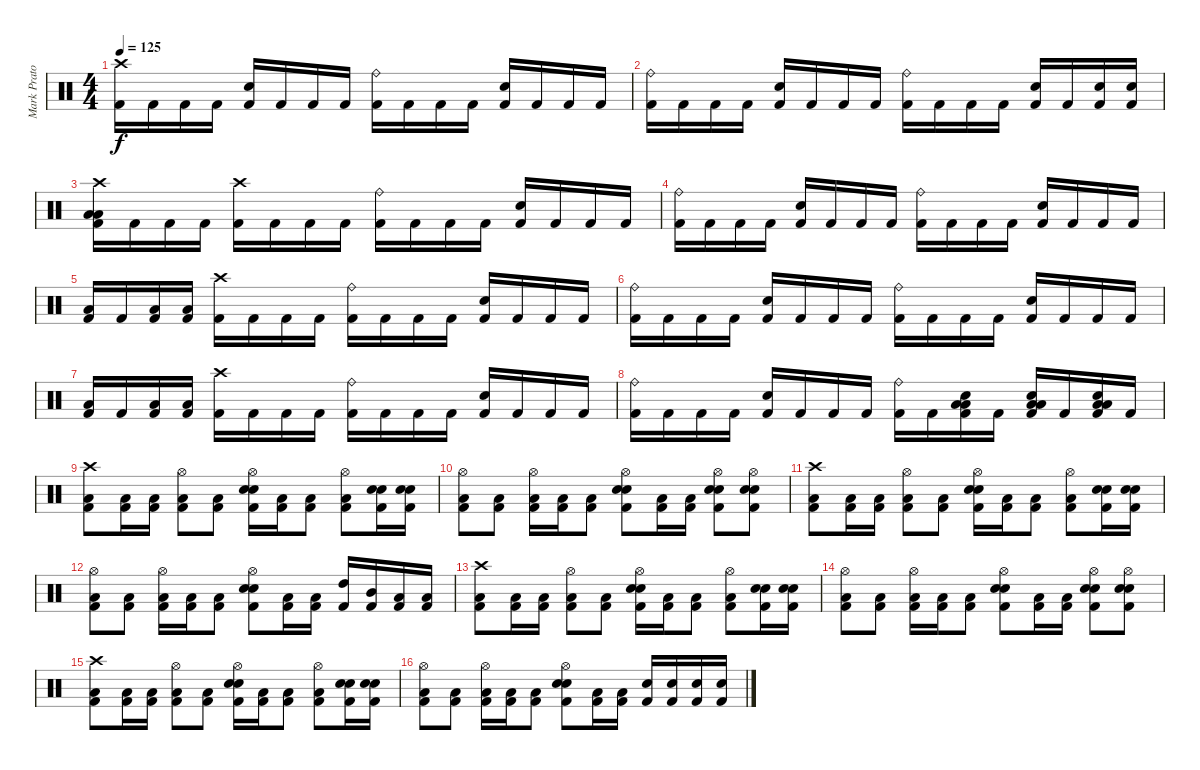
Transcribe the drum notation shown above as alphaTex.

\track ("Mark Prator" "Mark Prato") {instrument percussion}
\staff {score}
\articulation defaults
\ts (4 4)
\tempo 125
\clef neutral
\ks c
("Crash high (hit)" "Kick (hit) 2").16{dy f} "Kick (hit) 2".16 "Kick (hit) 2".16 "Kick (hit) 2".16 ("Electric Snare (hit)" "Kick (hit) 2").16 "Kick (hit) 2".16 "Kick (hit) 2".16 "Kick (hit) 2".16 ("Ride (bell)" "Kick (hit) 2").16 "Kick (hit) 2".16 "Kick (hit) 2".16 "Kick (hit) 2".16 ("Electric Snare (hit)" "Kick (hit) 2").16 "Kick (hit) 2".16 "Kick (hit) 2".16 "Kick (hit) 2".16 |
("Ride (bell)" "Kick (hit) 2").16 "Kick (hit) 2".16 "Kick (hit) 2".16 "Kick (hit) 2".16 ("Electric Snare (hit)" "Kick (hit) 2").16 "Kick (hit) 2".16 "Kick (hit) 2".16 "Kick (hit) 2".16 ("Ride (bell)" "Kick (hit) 2").16 "Kick (hit) 2".16 "Kick (hit) 2".16 "Kick (hit) 2".16 ("Electric Snare (hit)" "Kick (hit) 2").16 "Kick (hit) 2".16 ("Electric Snare (hit)" "Kick (hit) 2").16 ("Electric Snare (hit)" "Kick (hit) 2").16 |
("Crash high (hit)" "Low Floor Tom (hit)" "Low Floor Tom (hit)" "Kick (hit) 2").16 "Kick (hit) 2".16 "Kick (hit) 2".16 "Kick (hit) 2".16 ("Crash high (hit)" "Kick (hit) 2").16 "Kick (hit) 2".16 "Kick (hit) 2".16 "Kick (hit) 2".16 ("Ride (bell)" "Kick (hit) 2").16 "Kick (hit) 2".16 "Kick (hit) 2".16 "Kick (hit) 2".16 ("Electric Snare (hit)" "Kick (hit) 2").16 "Kick (hit) 2".16 "Kick (hit) 2".16 "Kick (hit) 2".16 |
("Ride (bell)" "Kick (hit) 2").16 "Kick (hit) 2".16 "Kick (hit) 2".16 "Kick (hit) 2".16 ("Electric Snare (hit)" "Kick (hit) 2").16 "Kick (hit) 2".16 "Kick (hit) 2".16 "Kick (hit) 2".16 ("Ride (bell)" "Kick (hit) 2").16 "Kick (hit) 2".16 "Kick (hit) 2".16 "Kick (hit) 2".16 ("Electric Snare (hit)" "Kick (hit) 2").16 "Kick (hit) 2".16 "Kick (hit) 2".16 "Kick (hit) 2".16 |
("Low Tom (hit)" "Kick (hit) 2").16 "Kick (hit) 2".16 ("Low Tom (hit)" "Kick (hit) 2").16 ("Low Tom (hit)" "Kick (hit) 2").16 ("Crash high (hit)" "Kick (hit) 2").16 "Kick (hit) 2".16 "Kick (hit) 2".16 "Kick (hit) 2".16 ("Ride (bell)" "Kick (hit) 2").16 "Kick (hit) 2".16 "Kick (hit) 2".16 "Kick (hit) 2".16 ("Electric Snare (hit)" "Kick (hit) 2").16 "Kick (hit) 2".16 "Kick (hit) 2".16 "Kick (hit) 2".16 |
("Ride (bell)" "Kick (hit) 2").16 "Kick (hit) 2".16 "Kick (hit) 2".16 "Kick (hit) 2".16 ("Electric Snare (hit)" "Kick (hit) 2").16 "Kick (hit) 2".16 "Kick (hit) 2".16 "Kick (hit) 2".16 ("Ride (bell)" "Kick (hit) 2").16 "Kick (hit) 2".16 "Kick (hit) 2".16 "Kick (hit) 2".16 ("Electric Snare (hit)" "Kick (hit) 2").16 "Kick (hit) 2".16 "Kick (hit) 2".16 "Kick (hit) 2".16 |
("Low Tom (hit)" "Kick (hit) 2").16 "Kick (hit) 2".16 ("Low Tom (hit)" "Kick (hit) 2").16 ("Low Tom (hit)" "Kick (hit) 2").16 ("Crash high (hit)" "Kick (hit) 2").16 "Kick (hit) 2".16 "Kick (hit) 2".16 "Kick (hit) 2".16 ("Ride (bell)" "Kick (hit) 2").16 "Kick (hit) 2".16 "Kick (hit) 2".16 "Kick (hit) 2".16 ("Electric Snare (hit)" "Kick (hit) 2").16 "Kick (hit) 2".16 "Kick (hit) 2".16 "Kick (hit) 2".16 |
("Ride (bell)" "Kick (hit) 2").16 "Kick (hit) 2".16 "Kick (hit) 2".16 "Kick (hit) 2".16 ("Electric Snare (hit)" "Kick (hit) 2").16 "Kick (hit) 2".16 "Kick (hit) 2".16 "Kick (hit) 2".16 ("Ride (bell)" "Kick (hit) 2").16 "Kick (hit) 2".16 ("Low Floor Tom (hit)" "Low Floor Tom (hit)" "Electric Snare (hit)" "Kick (hit) 2").16 "Kick (hit) 2".16 ("Low Floor Tom (hit)" "Low Floor Tom (hit)" "Electric Snare (hit)" "Kick (hit) 2").16 "Kick (hit) 2".16 ("Low Floor Tom (hit)" "Low Floor Tom (hit)" "Electric Snare (hit)" "Kick (hit) 2").16 "Kick (hit) 2".16 |
("Crash high (hit)" "Low Tom (hit)" "Kick (hit) 2").8 ("Low Tom (hit)" "Kick (hit) 2").16 ("Low Tom (hit)" "Kick (hit) 2").16 ("Hi-Hat (open)" "Low Tom (hit)" "Kick (hit) 2").8 ("Low Tom (hit)" "Kick (hit) 2").8 ("Hi-Hat (open)" "Electric Snare (hit)" "Electric Snare (hit)" "Kick (hit) 2").16 ("Low Tom (hit)" "Kick (hit) 2").16 ("Low Tom (hit)" "Kick (hit) 2").8 ("Hi-Hat (open)" "Low Tom (hit)" "Kick (hit) 2").8 ("Electric Snare (hit)" "Electric Snare (hit)" "Kick (hit) 2").16 ("Electric Snare (hit)" "Electric Snare (hit)" "Kick (hit) 2").16 |
("Hi-Hat (open)" "Low Tom (hit)" "Kick (hit) 2").8 ("Low Tom (hit)" "Kick (hit) 2").8 ("Hi-Hat (open)" "Low Tom (hit)" "Kick (hit) 2").16 ("Low Tom (hit)" "Kick (hit) 2").16 ("Low Tom (hit)" "Kick (hit) 2").8 ("Hi-Hat (open)" "Electric Snare (hit)" "Electric Snare (hit)" "Kick (hit) 2").8 ("Low Tom (hit)" "Kick (hit) 2").16 ("Low Tom (hit)" "Kick (hit) 2").16 ("Hi-Hat (open)" "Electric Snare (hit)" "Electric Snare (hit)" "Kick (hit) 2").8 ("Hi-Hat (open)" "Electric Snare (hit)" "Electric Snare (hit)" "Kick (hit) 2").8 |
("Crash high (hit)" "Low Tom (hit)" "Kick (hit) 2").8 ("Low Tom (hit)" "Kick (hit) 2").16 ("Low Tom (hit)" "Kick (hit) 2").16 ("Hi-Hat (open)" "Low Tom (hit)" "Kick (hit) 2").8 ("Low Tom (hit)" "Kick (hit) 2").8 ("Hi-Hat (open)" "Electric Snare (hit)" "Electric Snare (hit)" "Kick (hit) 2").16 ("Low Tom (hit)" "Kick (hit) 2").16 ("Low Tom (hit)" "Kick (hit) 2").8 ("Hi-Hat (open)" "Low Tom (hit)" "Kick (hit) 2").8 ("Electric Snare (hit)" "Electric Snare (hit)" "Kick (hit) 2").16 ("Electric Snare (hit)" "Electric Snare (hit)" "Kick (hit) 2").16 |
("Hi-Hat (open)" "Low Tom (hit)" "Kick (hit) 2").8 ("Low Tom (hit)" "Kick (hit) 2").8 ("Hi-Hat (open)" "Low Tom (hit)" "Kick (hit) 2").16 ("Low Tom (hit)" "Kick (hit) 2").16 ("Low Tom (hit)" "Kick (hit) 2").8 ("Hi-Hat (open)" "Electric Snare (hit)" "Electric Snare (hit)" "Kick (hit) 2").8 ("Low Tom (hit)" "Kick (hit) 2").16 ("Low Tom (hit)" "Kick (hit) 2").16 ("High Tom (hit)" "Kick (hit) 2").16 ("Mid Tom (hit)" "Kick (hit) 2").16 ("Low Tom (hit)" "Kick (hit) 2").16 ("Low Floor Tom (hit)" "Kick (hit) 2").16 |
("Crash high (hit)" "Low Tom (hit)" "Kick (hit) 2").8 ("Low Tom (hit)" "Kick (hit) 2").16 ("Low Tom (hit)" "Kick (hit) 2").16 ("Hi-Hat (open)" "Low Tom (hit)" "Kick (hit) 2").8 ("Low Tom (hit)" "Kick (hit) 2").8 ("Hi-Hat (open)" "Electric Snare (hit)" "Electric Snare (hit)" "Kick (hit) 2").16 ("Low Tom (hit)" "Kick (hit) 2").16 ("Low Tom (hit)" "Kick (hit) 2").8 ("Hi-Hat (open)" "Low Tom (hit)" "Kick (hit) 2").8 ("Electric Snare (hit)" "Electric Snare (hit)" "Kick (hit) 2").16 ("Electric Snare (hit)" "Electric Snare (hit)" "Kick (hit) 2").16 |
("Hi-Hat (open)" "Low Tom (hit)" "Kick (hit) 2").8 ("Low Tom (hit)" "Kick (hit) 2").8 ("Hi-Hat (open)" "Low Tom (hit)" "Kick (hit) 2").16 ("Low Tom (hit)" "Kick (hit) 2").16 ("Low Tom (hit)" "Kick (hit) 2").8 ("Hi-Hat (open)" "Electric Snare (hit)" "Electric Snare (hit)" "Kick (hit) 2").8 ("Low Tom (hit)" "Kick (hit) 2").16 ("Low Tom (hit)" "Kick (hit) 2").16 ("Hi-Hat (open)" "Electric Snare (hit)" "Electric Snare (hit)" "Kick (hit) 2").8 ("Hi-Hat (open)" "Electric Snare (hit)" "Electric Snare (hit)" "Kick (hit) 2").8 |
("Crash high (hit)" "Low Tom (hit)" "Kick (hit) 2").8 ("Low Tom (hit)" "Kick (hit) 2").16 ("Low Tom (hit)" "Kick (hit) 2").16 ("Hi-Hat (open)" "Low Tom (hit)" "Kick (hit) 2").8 ("Low Tom (hit)" "Kick (hit) 2").8 ("Hi-Hat (open)" "Electric Snare (hit)" "Electric Snare (hit)" "Kick (hit) 2").16 ("Low Tom (hit)" "Kick (hit) 2").16 ("Low Tom (hit)" "Kick (hit) 2").8 ("Hi-Hat (open)" "Low Tom (hit)" "Kick (hit) 2").8 ("Electric Snare (hit)" "Electric Snare (hit)" "Kick (hit) 2").16 ("Electric Snare (hit)" "Electric Snare (hit)" "Kick (hit) 2").16 |
("Hi-Hat (open)" "Low Tom (hit)" "Kick (hit) 2").8 ("Low Tom (hit)" "Kick (hit) 2").8 ("Hi-Hat (open)" "Low Tom (hit)" "Kick (hit) 2").16 ("Low Tom (hit)" "Kick (hit) 2").16 ("Low Tom (hit)" "Kick (hit) 2").8 ("Hi-Hat (open)" "Electric Snare (hit)" "Electric Snare (hit)" "Kick (hit) 2").8 ("Low Tom (hit)" "Kick (hit) 2").16 ("Low Tom (hit)" "Kick (hit) 2").16 ("Electric Snare (hit)" "Kick (hit) 2").16 ("Electric Snare (hit)" "Kick (hit) 2").16 ("Electric Snare (hit)" "Kick (hit) 2").16 ("Electric Snare (hit)" "Kick (hit) 2").16
